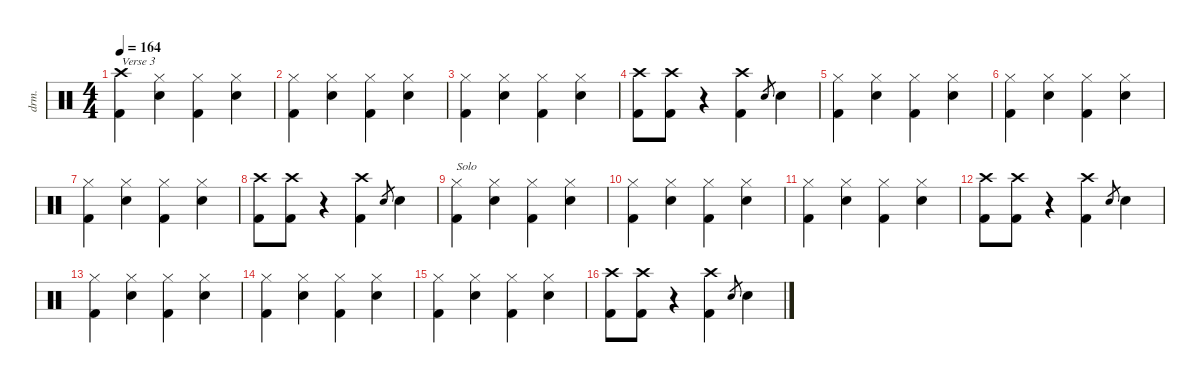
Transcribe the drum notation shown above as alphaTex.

\defaultSystemsLayout 4
\hideDynamics
\bracketExtendMode nobrackets
\track ("Drums" "drm.") {instrument percussion}
\staff {score}
\articulation defaults
\ts (4 4)
\tempo 164
\clef neutral
\ks c
("Crash high (hit)" "Kick (hit) 2").4{txt "Verse 3" dy fff} ("Hi-Hat (closed)" "Snare (hit) 2").4{dy f} ("Hi-Hat (closed)" "Kick (hit) 2").4 ("Hi-Hat (closed)" "Snare (hit) 2").4 |
("Hi-Hat (closed)" "Kick (hit) 2").4 ("Hi-Hat (closed)" "Snare (hit) 2").4 ("Hi-Hat (closed)" "Kick (hit) 2").4 ("Hi-Hat (closed)" "Snare (hit) 2").4 |
("Hi-Hat (closed)" "Kick (hit) 2").4 ("Hi-Hat (closed)" "Snare (hit) 2").4 ("Hi-Hat (closed)" "Kick (hit) 2").4 ("Hi-Hat (closed)" "Snare (hit) 2").4 |
("Crash high (hit)" "Kick (hit) 2").8{dy fff} ("Crash high (hit)" "Kick (hit) 2").8 r.4 ("Crash high (hit)" "Kick (hit) 2").4 "Snare (hit) 2".8{gr dy mf} "Snare (hit) 2".4{dy f} |
("Hi-Hat (closed)" "Kick (hit) 2").4 ("Hi-Hat (closed)" "Snare (hit) 2").4 ("Hi-Hat (closed)" "Kick (hit) 2").4 ("Hi-Hat (closed)" "Snare (hit) 2").4 |
("Hi-Hat (closed)" "Kick (hit) 2").4 ("Hi-Hat (closed)" "Snare (hit) 2").4 ("Hi-Hat (closed)" "Kick (hit) 2").4 ("Hi-Hat (closed)" "Snare (hit) 2").4 |
("Hi-Hat (closed)" "Kick (hit) 2").4 ("Hi-Hat (closed)" "Snare (hit) 2").4 ("Hi-Hat (closed)" "Kick (hit) 2").4 ("Hi-Hat (closed)" "Snare (hit) 2").4 |
("Crash high (hit)" "Kick (hit) 2").8{dy fff} ("Crash high (hit)" "Kick (hit) 2").8 r.4 ("Crash high (hit)" "Kick (hit) 2").4 "Snare (hit) 2".8{gr dy mf} "Snare (hit) 2".4{dy f} |
("Hi-Hat (closed)" "Kick (hit) 2").4{txt "Solo"} ("Hi-Hat (closed)" "Snare (hit) 2").4 ("Hi-Hat (closed)" "Kick (hit) 2").4 ("Hi-Hat (closed)" "Snare (hit) 2").4 |
("Hi-Hat (closed)" "Kick (hit) 2").4 ("Hi-Hat (closed)" "Snare (hit) 2").4 ("Hi-Hat (closed)" "Kick (hit) 2").4 ("Hi-Hat (closed)" "Snare (hit) 2").4 |
("Hi-Hat (closed)" "Kick (hit) 2").4 ("Hi-Hat (closed)" "Snare (hit) 2").4 ("Hi-Hat (closed)" "Kick (hit) 2").4 ("Hi-Hat (closed)" "Snare (hit) 2").4 |
("Crash high (hit)" "Kick (hit) 2").8{dy fff} ("Crash high (hit)" "Kick (hit) 2").8 r.4 ("Crash high (hit)" "Kick (hit) 2").4 "Snare (hit) 2".8{gr dy mf} "Snare (hit) 2".4{dy f} |
("Hi-Hat (closed)" "Kick (hit) 2").4 ("Hi-Hat (closed)" "Snare (hit) 2").4 ("Hi-Hat (closed)" "Kick (hit) 2").4 ("Hi-Hat (closed)" "Snare (hit) 2").4 |
("Hi-Hat (closed)" "Kick (hit) 2").4 ("Hi-Hat (closed)" "Snare (hit) 2").4 ("Hi-Hat (closed)" "Kick (hit) 2").4 ("Hi-Hat (closed)" "Snare (hit) 2").4 |
("Hi-Hat (closed)" "Kick (hit) 2").4 ("Hi-Hat (closed)" "Snare (hit) 2").4 ("Hi-Hat (closed)" "Kick (hit) 2").4 ("Hi-Hat (closed)" "Snare (hit) 2").4 |
("Crash high (hit)" "Kick (hit) 2").8{dy fff} ("Crash high (hit)" "Kick (hit) 2").8 r.4 ("Crash high (hit)" "Kick (hit) 2").4 "Snare (hit) 2".8{gr dy mf} "Snare (hit) 2".4{dy f}
